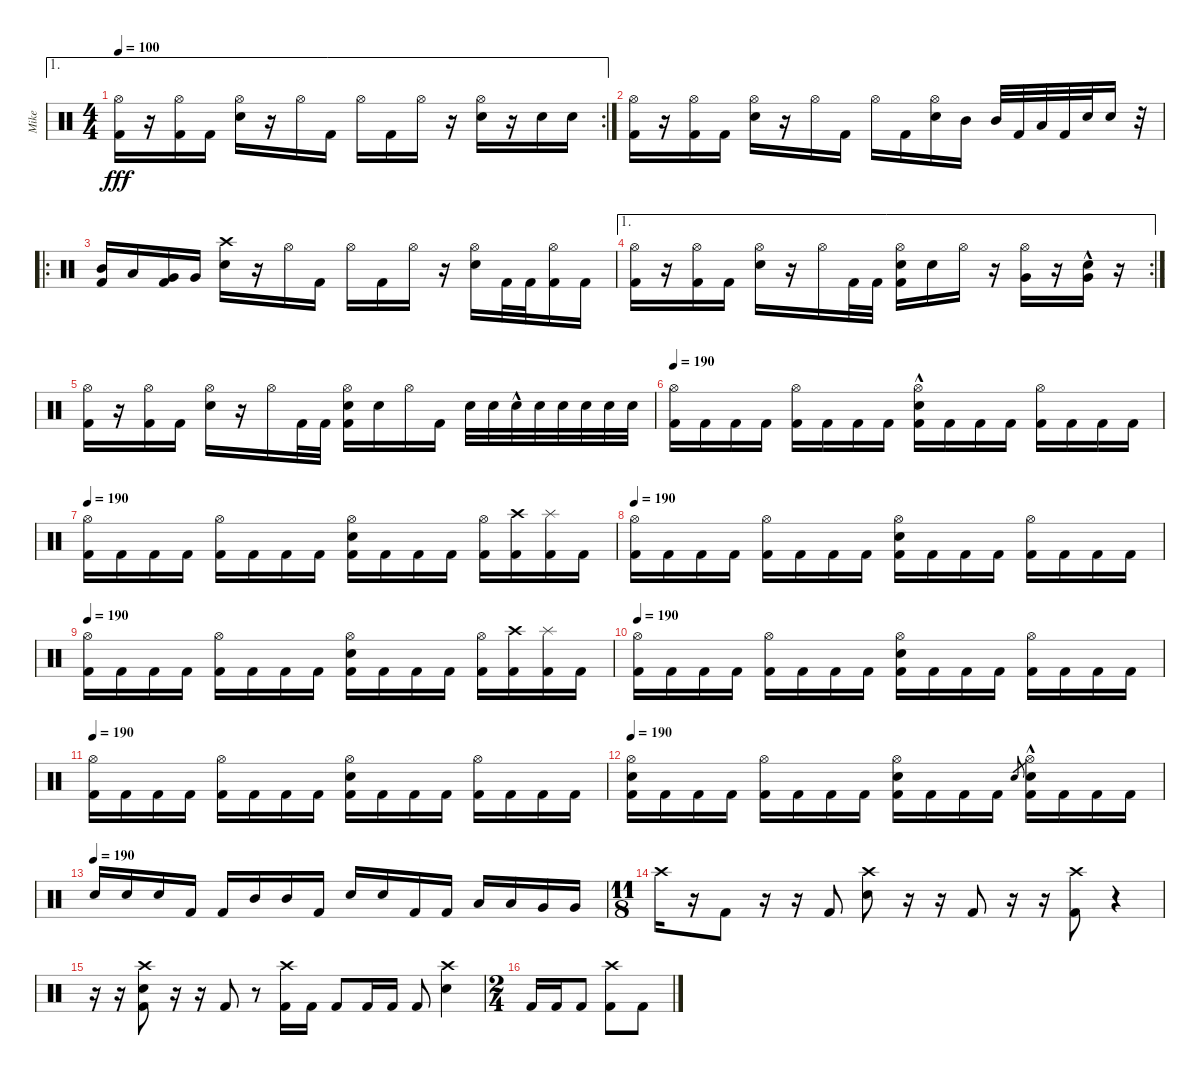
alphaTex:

\track ("Mike" "Mike") {instrument percussion}
\staff {score}
\articulation defaults
\ae 1
\rc 2
\ts (4 4)
\tempo 100
\clef neutral
\ks c
("Hi-Hat (open)" "Kick (hit) 2").16{dy fff} r.16 ("Hi-Hat (open)" "Kick (hit) 2").16 "Kick (hit) 2".16 ("Hi-Hat (open)" "Electric Snare (hit)").16 r.16 "Hi-Hat (open)".16 "Kick (hit) 2".16 "Hi-Hat (open)".16 "Kick (hit) 2".16 "Hi-Hat (open)".16 r.16 ("Hi-Hat (open)" "Electric Snare (hit)").16 r.16 "Electric Snare (hit)".16 "Electric Snare (hit)".16 |
("Hi-Hat (open)" "Kick (hit) 2").16 r.16 ("Hi-Hat (open)" "Kick (hit) 2").16 "Kick (hit) 2".16 ("Hi-Hat (open)" "Electric Snare (hit)").16 r.16 "Hi-Hat (open)".16 "Kick (hit) 2".16 "Hi-Hat (open)".16 "Kick (hit) 2".16 ("Hi-Hat (open)" "Electric Snare (hit)").16 "Mid Tom (hit)".16 "Mid Tom (hit)".32 "Kick (hit) 2".32 "Low Tom (hit)".32 "Kick (hit) 2".32 "Electric Snare (hit)".32 "Electric Snare (hit)".16 r.32 |
\ro
("Mid Tom (hit)" "Kick (hit) 2").16 "Low Tom (hit)".16 ("Very Low Tom (hit)" "Kick (hit) 2").16 "Very Low Tom (hit)".16 ("Crash high (hit)" "Electric Snare (hit)").16 r.16 "Hi-Hat (open)".16 "Kick (hit) 2".16 "Hi-Hat (open)".16 "Kick (hit) 2".16 "Hi-Hat (open)".16 r.16 ("Hi-Hat (open)" "Electric Snare (hit)").16 "Kick (hit) 2".32 "Kick (hit) 2".32 ("Hi-Hat (open)" "Kick (hit) 2").16 "Kick (hit) 2".16 |
\ae 1
\rc 2
("Hi-Hat (open)" "Kick (hit) 2").16 r.16 ("Hi-Hat (open)" "Kick (hit) 2").16 "Kick (hit) 2".16 ("Hi-Hat (open)" "Electric Snare (hit)").16 r.16 "Hi-Hat (open)".16 "Kick (hit) 2".32 "Kick (hit) 2".32 ("Hi-Hat (open)" "Electric Snare (hit)" "Kick (hit) 2").16 "Electric Snare (hit)".16 "Hi-Hat (open)".16 r.16 ("Hi-Hat (open)" "Very Low Tom (hit)").16 r.16 ("Electric Snare (hit)"{hac} "Very Low Tom (hit)").16 r.16 |
("Hi-Hat (open)" "Kick (hit) 2").16 r.16 ("Hi-Hat (open)" "Kick (hit) 2").16 "Kick (hit) 2".16 ("Hi-Hat (open)" "Electric Snare (hit)").16 r.16 "Hi-Hat (open)".16 "Kick (hit) 2".32 "Kick (hit) 2".32 ("Hi-Hat (open)" "Electric Snare (hit)" "Kick (hit) 2").16 "Electric Snare (hit)".16 "Hi-Hat (open)".16 "Kick (hit) 2".16 "Electric Snare (hit)".32 "Electric Snare (hit)".32 "Electric Snare (hit)"{hac}.32 "Electric Snare (hit)".32 "Electric Snare (hit)".32 "Electric Snare (hit)".32 "Electric Snare (hit)".32 "Electric Snare (hit)".32 |
\tempo 190
("Hi-Hat (open)" "Kick (hit) 2").16 "Kick (hit) 2".16 "Kick (hit) 2".16 "Kick (hit) 2".16 ("Hi-Hat (open)" "Kick (hit) 2").16 "Kick (hit) 2".16 "Kick (hit) 2".16 "Kick (hit) 2".16 ("Hi-Hat (open)" "Electric Snare (hit)"{hac} "Kick (hit) 2").16 "Kick (hit) 2".16 "Kick (hit) 2".16 "Kick (hit) 2".16 ("Hi-Hat (open)" "Kick (hit) 2").16 "Kick (hit) 2".16 "Kick (hit) 2".16 "Kick (hit) 2".16 |
\tempo 190
("Hi-Hat (open)" "Kick (hit) 2").16 "Kick (hit) 2".16 "Kick (hit) 2".16 "Kick (hit) 2".16 ("Hi-Hat (open)" "Kick (hit) 2").16 "Kick (hit) 2".16 "Kick (hit) 2".16 "Kick (hit) 2".16 ("Hi-Hat (open)" "Electric Snare (hit)" "Kick (hit) 2").16 "Kick (hit) 2".16 "Kick (hit) 2".16 "Kick (hit) 2".16 ("Hi-Hat (open)" "Kick (hit) 2").16 ("Crash high (hit)" "Kick (hit) 2").16 ("Splash (hit)" "Kick (hit) 2").16 "Kick (hit) 2".16 |
\tempo 190
("Hi-Hat (open)" "Kick (hit) 2").16 "Kick (hit) 2".16 "Kick (hit) 2".16 "Kick (hit) 2".16 ("Hi-Hat (open)" "Kick (hit) 2").16 "Kick (hit) 2".16 "Kick (hit) 2".16 "Kick (hit) 2".16 ("Hi-Hat (open)" "Electric Snare (hit)" "Kick (hit) 2").16 "Kick (hit) 2".16 "Kick (hit) 2".16 "Kick (hit) 2".16 ("Hi-Hat (open)" "Kick (hit) 2").16 "Kick (hit) 2".16 "Kick (hit) 2".16 "Kick (hit) 2".16 |
\tempo 190
("Hi-Hat (open)" "Kick (hit) 2").16 "Kick (hit) 2".16 "Kick (hit) 2".16 "Kick (hit) 2".16 ("Hi-Hat (open)" "Kick (hit) 2").16 "Kick (hit) 2".16 "Kick (hit) 2".16 "Kick (hit) 2".16 ("Hi-Hat (open)" "Electric Snare (hit)" "Kick (hit) 2").16 "Kick (hit) 2".16 "Kick (hit) 2".16 "Kick (hit) 2".16 ("Hi-Hat (open)" "Kick (hit) 2").16 ("Crash high (hit)" "Kick (hit) 2").16 ("Splash (hit)" "Kick (hit) 2").16 "Kick (hit) 2".16 |
\tempo 190
("Hi-Hat (open)" "Kick (hit) 2").16 "Kick (hit) 2".16 "Kick (hit) 2".16 "Kick (hit) 2".16 ("Hi-Hat (open)" "Kick (hit) 2").16 "Kick (hit) 2".16 "Kick (hit) 2".16 "Kick (hit) 2".16 ("Hi-Hat (open)" "Electric Snare (hit)" "Kick (hit) 2").16 "Kick (hit) 2".16 "Kick (hit) 2".16 "Kick (hit) 2".16 ("Hi-Hat (open)" "Kick (hit) 2").16 "Kick (hit) 2".16 "Kick (hit) 2".16 "Kick (hit) 2".16 |
\tempo 190
("Hi-Hat (open)" "Kick (hit) 2").16 "Kick (hit) 2".16 "Kick (hit) 2".16 "Kick (hit) 2".16 ("Hi-Hat (open)" "Kick (hit) 2").16 "Kick (hit) 2".16 "Kick (hit) 2".16 "Kick (hit) 2".16 ("Hi-Hat (open)" "Electric Snare (hit)" "Kick (hit) 2").16 "Kick (hit) 2".16 "Kick (hit) 2".16 "Kick (hit) 2".16 ("Hi-Hat (open)" "Kick (hit) 2").16 "Kick (hit) 2".16 "Kick (hit) 2".16 "Kick (hit) 2".16 |
\tempo 190
("Hi-Hat (open)" "Electric Snare (hit)" "Kick (hit) 2").16 "Kick (hit) 2".16 "Kick (hit) 2".16 "Kick (hit) 2".16 ("Hi-Hat (open)" "Kick (hit) 2").16 "Kick (hit) 2".16 "Kick (hit) 2".16 "Kick (hit) 2".16 ("Hi-Hat (open)" "Electric Snare (hit)" "Kick (hit) 2").16 "Kick (hit) 2".16 "Kick (hit) 2".16 "Kick (hit) 2".16 "Electric Snare (hit)".8{gr} ("Hi-Hat (open)" "Electric Snare (hit)"{hac} "Kick (hit) 2").16 "Kick (hit) 2".16 "Kick (hit) 2".16 "Kick (hit) 2".16 |
\tempo (190)
"Electric Snare (hit)".16 "Electric Snare (hit)".16 "Electric Snare (hit)".16 "Kick (hit) 2".16 "Kick (hit) 2".16 "Mid Tom (hit)".16 "Mid Tom (hit)".16 "Kick (hit) 2".16 "Electric Snare (hit)".16 "Electric Snare (hit)".16 "Kick (hit) 2".16 "Kick (hit) 2".16 "Low Tom (hit)".16 "Low Tom (hit)".16 "Very Low Tom (hit)".16 "Very Low Tom (hit)".16 |
\ts (11 8)
"Crash high (hit)".16 r.16 "Kick (hit) 2".8 r.16 r.16 "Kick (hit) 2".8 ("Crash high (hit)" "Electric Snare (hit)").8 r.16 r.16 "Kick (hit) 2".8 r.16 r.16 ("Crash high (hit)" "Kick (hit) 2").8 r.4 |
r.16 r.16 ("Crash high (hit)" "Electric Snare (hit)" "Kick (hit) 2").8 r.16 r.16 "Kick (hit) 2".8 r.8 ("Crash high (hit)" "Kick (hit) 2").16 "Kick (hit) 2".16 "Kick (hit) 2".8 "Kick (hit) 2".16 "Kick (hit) 2".16 "Kick (hit) 2".8 ("Crash high (hit)" "Electric Snare (hit)").4 |
\ts (2 4)
"Kick (hit) 2".16 "Kick (hit) 2".16 "Kick (hit) 2".8 ("Crash high (hit)" "Kick (hit) 2").8 "Kick (hit) 2".8
